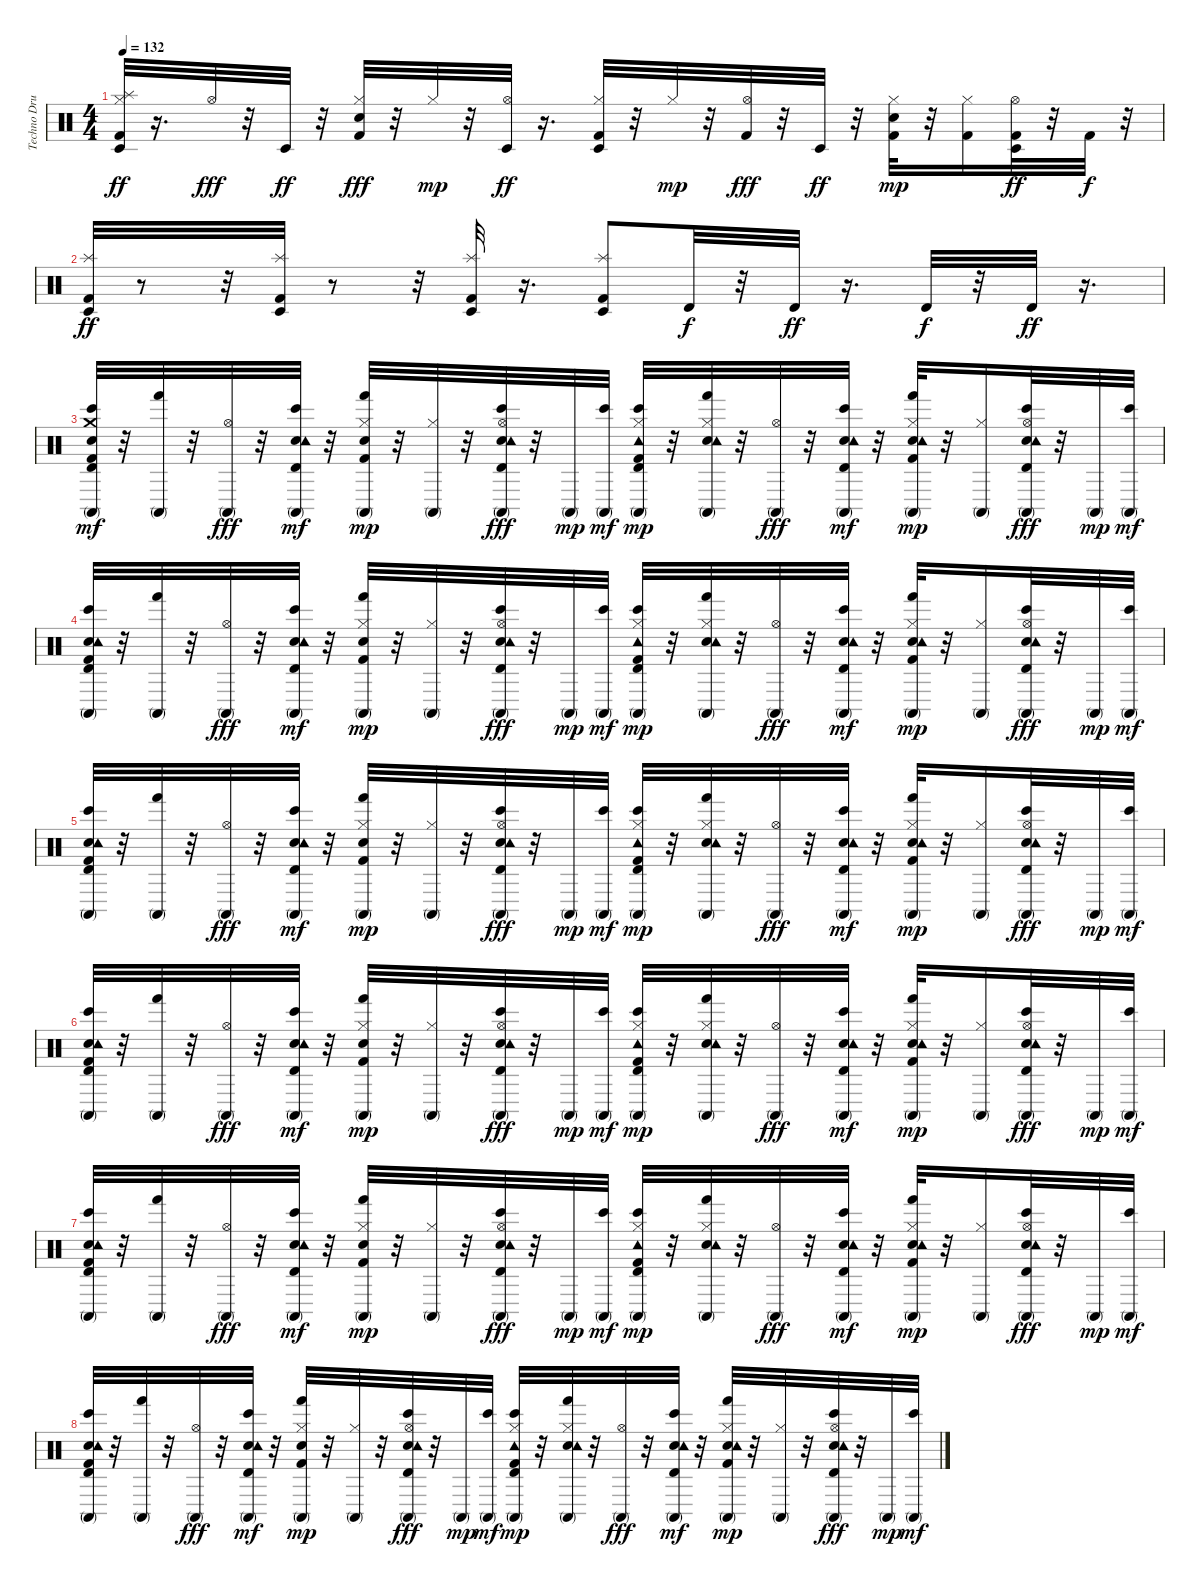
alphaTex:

\track ("Techno Drums" "Techno Dru") {instrument percussion}
\staff {score}
\articulation defaults
\ts (4 4)
\tempo 132
\clef neutral
\ks c
("Kick (hit) 2" "Hi-Hat (closed)" "Splash (hit)" "Timbale low (hit)").32{dy ff} r.16{d} "Hi-Hat (open)".32{dy fff} r.32 "Timbale low (hit)".32{dy ff} r.32 ("Hand Clap (hit)" "Hi-Hat (closed)" "Kick (hit) 2").32{dy fff} r.32 "Hi-Hat (closed)".32{dy mp} r.32 ("Hi-Hat (open)" "Timbale low (hit)").32{dy ff} r.16{d} ("Hi-Hat (closed)" "Kick (hit) 2" "Timbale low (hit)").32 r.32 "Hi-Hat (closed)".32{dy mp} r.32 ("Hi-Hat (open)" "Kick (hit) 2").32{dy fff} r.32 "Timbale low (hit)".32{dy ff} r.32 ("Hi-Hat (closed)" "Kick (hit) 2" "Hand Clap (hit)").32{dy mp} r.32 ("Hi-Hat (closed)" "Kick (hit) 2").16 ("Hi-Hat (open)" "Kick (hit) 2" "Timbale low (hit)").32{dy ff} r.32 "Kick (hit) 2".32{dy f} r.32 |
("Kick (hit) 2" "Timbale low (hit)" "Splash (hit)").32{dy ff} r.8 r.32 ("Kick (hit) 2" "Timbale low (hit)" "Splash (hit)").32 r.8 r.32 ("Kick (hit) 2" "Timbale low (hit)" "Splash (hit)").32 r.16{d} ("Timbale low (hit)" "Splash (hit)" "Kick (hit) 2").8 "Timbale high (hit)".32{dy f} r.32 "Timbale high (hit)".32{dy ff} r.16{d} "Timbale high (hit)".32{dy f} r.32 "Timbale high (hit)".32{dy ff} r.16{d} |
("Kick (hit) 2" "Hand Clap (hit)" "Crash medium (hit)" "Conga high (mute)" "Bongo High (hit)" "Timbale high (hit)").32{dy mf} r.32 ("Conga high (mute)" "Hand (hit)").32 r.32 ("Conga high (mute)" "Hi-Hat (open)").32{dy fff} r.32 ("Hand Clap (hit)" "Tambourine (hit)" "Conga high (mute)" "Bongo High (hit)" "Timbale high (hit)").32{dy mf} r.32 ("Kick (hit) 2" "Hand Clap (hit)" "Conga high (mute)" "Hand (hit)" "Hi-Hat (closed)").32{dy mp} r.32 ("Conga high (mute)" "Hi-Hat (closed)").32 r.32 ("Hand Clap (hit)" "Tambourine (hit)" "Conga high (mute)" "Bongo High (hit)" "Timbale high (hit)" "Hi-Hat (open)").32{dy fff} r.32 "Conga high (mute)".32{dy mp} ("Conga high (mute)" "Bongo High (hit)").32{dy mf} ("Kick (hit) 2" "Tambourine (hit)" "Conga high (mute)" "Bongo High (hit)" "Timbale high (hit)" "Hi-Hat (closed)").32{dy mp} r.32 ("Hand Clap (hit)" "Tambourine (hit)" "Conga high (mute)" "Hand (hit)" "Hi-Hat (closed)").32 r.32 ("Conga high (mute)" "Hi-Hat (open)").32{dy fff} r.32 ("Hand Clap (hit)" "Tambourine (hit)" "Conga high (mute)" "Bongo High (hit)" "Timbale high (hit)").32{dy mf} r.32 ("Kick (hit) 2" "Hand Clap (hit)" "Tambourine (hit)" "Conga high (mute)" "Hand (hit)" "Hi-Hat (closed)").32{dy mp} r.32 ("Conga high (mute)" "Hi-Hat (closed)").16 ("Hand Clap (hit)" "Tambourine (hit)" "Conga high (mute)" "Bongo High (hit)" "Timbale high (hit)" "Hi-Hat (open)").32{dy fff} r.32 "Conga high (mute)".32{dy mp} ("Conga high (mute)" "Bongo High (hit)").32{dy mf} |
("Kick (hit) 2" "Hand Clap (hit)" "Tambourine (hit)" "Conga high (mute)" "Bongo High (hit)" "Timbale high (hit)").32 r.32 ("Conga high (mute)" "Hand (hit)").32 r.32 ("Conga high (mute)" "Hi-Hat (open)").32{dy fff} r.32 ("Hand Clap (hit)" "Tambourine (hit)" "Conga high (mute)" "Bongo High (hit)" "Timbale high (hit)").32{dy mf} r.32 ("Kick (hit) 2" "Hand Clap (hit)" "Conga high (mute)" "Hand (hit)" "Hi-Hat (closed)").32{dy mp} r.32 ("Conga high (mute)" "Hi-Hat (closed)").32 r.32 ("Hand Clap (hit)" "Tambourine (hit)" "Conga high (mute)" "Bongo High (hit)" "Timbale high (hit)" "Hi-Hat (open)").32{dy fff} r.32 "Conga high (mute)".32{dy mp} ("Conga high (mute)" "Bongo High (hit)").32{dy mf} ("Kick (hit) 2" "Tambourine (hit)" "Conga high (mute)" "Bongo High (hit)" "Timbale high (hit)" "Hi-Hat (closed)").32{dy mp} r.32 ("Hand Clap (hit)" "Tambourine (hit)" "Conga high (mute)" "Hand (hit)" "Hi-Hat (closed)").32 r.32 ("Conga high (mute)" "Hi-Hat (open)").32{dy fff} r.32 ("Hand Clap (hit)" "Tambourine (hit)" "Conga high (mute)" "Bongo High (hit)" "Timbale high (hit)").32{dy mf} r.32 ("Kick (hit) 2" "Hand Clap (hit)" "Tambourine (hit)" "Conga high (mute)" "Hand (hit)" "Hi-Hat (closed)").32{dy mp} r.32 ("Conga high (mute)" "Hi-Hat (closed)").16 ("Hand Clap (hit)" "Tambourine (hit)" "Conga high (mute)" "Bongo High (hit)" "Timbale high (hit)" "Hi-Hat (open)").32{dy fff} r.32 "Conga high (mute)".32{dy mp} ("Conga high (mute)" "Bongo High (hit)").32{dy mf} |
("Kick (hit) 2" "Hand Clap (hit)" "Tambourine (hit)" "Conga high (mute)" "Bongo High (hit)" "Timbale high (hit)").32 r.32 ("Conga high (mute)" "Hand (hit)").32 r.32 ("Conga high (mute)" "Hi-Hat (open)").32{dy fff} r.32 ("Hand Clap (hit)" "Tambourine (hit)" "Conga high (mute)" "Bongo High (hit)" "Timbale high (hit)").32{dy mf} r.32 ("Kick (hit) 2" "Hand Clap (hit)" "Conga high (mute)" "Hand (hit)" "Hi-Hat (closed)").32{dy mp} r.32 ("Conga high (mute)" "Hi-Hat (closed)").32 r.32 ("Hand Clap (hit)" "Tambourine (hit)" "Conga high (mute)" "Bongo High (hit)" "Timbale high (hit)" "Hi-Hat (open)").32{dy fff} r.32 "Conga high (mute)".32{dy mp} ("Conga high (mute)" "Bongo High (hit)").32{dy mf} ("Kick (hit) 2" "Tambourine (hit)" "Conga high (mute)" "Bongo High (hit)" "Timbale high (hit)" "Hi-Hat (closed)").32{dy mp} r.32 ("Hand Clap (hit)" "Tambourine (hit)" "Conga high (mute)" "Hand (hit)" "Hi-Hat (closed)").32 r.32 ("Conga high (mute)" "Hi-Hat (open)").32{dy fff} r.32 ("Hand Clap (hit)" "Tambourine (hit)" "Conga high (mute)" "Bongo High (hit)" "Timbale high (hit)").32{dy mf} r.32 ("Kick (hit) 2" "Hand Clap (hit)" "Tambourine (hit)" "Conga high (mute)" "Hand (hit)" "Hi-Hat (closed)").32{dy mp} r.32 ("Conga high (mute)" "Hi-Hat (closed)").16 ("Hand Clap (hit)" "Tambourine (hit)" "Conga high (mute)" "Bongo High (hit)" "Timbale high (hit)" "Hi-Hat (open)").32{dy fff} r.32 "Conga high (mute)".32{dy mp} ("Conga high (mute)" "Bongo High (hit)").32{dy mf} |
("Kick (hit) 2" "Hand Clap (hit)" "Tambourine (hit)" "Conga high (mute)" "Bongo High (hit)" "Timbale high (hit)").32 r.32 ("Conga high (mute)" "Hand (hit)").32 r.32 ("Conga high (mute)" "Hi-Hat (open)").32{dy fff} r.32 ("Hand Clap (hit)" "Tambourine (hit)" "Conga high (mute)" "Bongo High (hit)" "Timbale high (hit)").32{dy mf} r.32 ("Kick (hit) 2" "Hand Clap (hit)" "Conga high (mute)" "Hand (hit)" "Hi-Hat (closed)").32{dy mp} r.32 ("Conga high (mute)" "Hi-Hat (closed)").32 r.32 ("Hand Clap (hit)" "Tambourine (hit)" "Conga high (mute)" "Bongo High (hit)" "Timbale high (hit)" "Hi-Hat (open)").32{dy fff} r.32 "Conga high (mute)".32{dy mp} ("Conga high (mute)" "Bongo High (hit)").32{dy mf} ("Kick (hit) 2" "Tambourine (hit)" "Conga high (mute)" "Bongo High (hit)" "Timbale high (hit)" "Hi-Hat (closed)").32{dy mp} r.32 ("Hand Clap (hit)" "Tambourine (hit)" "Conga high (mute)" "Hand (hit)" "Hi-Hat (closed)").32 r.32 ("Conga high (mute)" "Hi-Hat (open)").32{dy fff} r.32 ("Hand Clap (hit)" "Tambourine (hit)" "Conga high (mute)" "Bongo High (hit)" "Timbale high (hit)").32{dy mf} r.32 ("Kick (hit) 2" "Hand Clap (hit)" "Tambourine (hit)" "Conga high (mute)" "Hand (hit)" "Hi-Hat (closed)").32{dy mp} r.32 ("Conga high (mute)" "Hi-Hat (closed)").16 ("Hand Clap (hit)" "Tambourine (hit)" "Conga high (mute)" "Bongo High (hit)" "Timbale high (hit)" "Hi-Hat (open)").32{dy fff} r.32 "Conga high (mute)".32{dy mp} ("Conga high (mute)" "Bongo High (hit)").32{dy mf} |
("Kick (hit) 2" "Hand Clap (hit)" "Tambourine (hit)" "Conga high (mute)" "Bongo High (hit)" "Timbale high (hit)").32 r.32 ("Conga high (mute)" "Hand (hit)").32 r.32 ("Conga high (mute)" "Hi-Hat (open)").32{dy fff} r.32 ("Hand Clap (hit)" "Tambourine (hit)" "Conga high (mute)" "Bongo High (hit)" "Timbale high (hit)").32{dy mf} r.32 ("Kick (hit) 2" "Hand Clap (hit)" "Conga high (mute)" "Hand (hit)" "Hi-Hat (closed)").32{dy mp} r.32 ("Conga high (mute)" "Hi-Hat (closed)").32 r.32 ("Hand Clap (hit)" "Tambourine (hit)" "Conga high (mute)" "Bongo High (hit)" "Timbale high (hit)" "Hi-Hat (open)").32{dy fff} r.32 "Conga high (mute)".32{dy mp} ("Conga high (mute)" "Bongo High (hit)").32{dy mf} ("Kick (hit) 2" "Tambourine (hit)" "Conga high (mute)" "Bongo High (hit)" "Timbale high (hit)" "Hi-Hat (closed)").32{dy mp} r.32 ("Hand Clap (hit)" "Tambourine (hit)" "Conga high (mute)" "Hand (hit)" "Hi-Hat (closed)").32 r.32 ("Conga high (mute)" "Hi-Hat (open)").32{dy fff} r.32 ("Hand Clap (hit)" "Tambourine (hit)" "Conga high (mute)" "Bongo High (hit)" "Timbale high (hit)").32{dy mf} r.32 ("Kick (hit) 2" "Hand Clap (hit)" "Tambourine (hit)" "Conga high (mute)" "Hand (hit)" "Hi-Hat (closed)").32{dy mp} r.32 ("Conga high (mute)" "Hi-Hat (closed)").16 ("Hand Clap (hit)" "Tambourine (hit)" "Conga high (mute)" "Bongo High (hit)" "Timbale high (hit)" "Hi-Hat (open)").32{dy fff} r.32 "Conga high (mute)".32{dy mp} ("Conga high (mute)" "Bongo High (hit)").32{dy mf} |
("Kick (hit) 2" "Hand Clap (hit)" "Tambourine (hit)" "Conga high (mute)" "Bongo High (hit)" "Timbale high (hit)").32 r.32 ("Conga high (mute)" "Hand (hit)").32 r.32 ("Conga high (mute)" "Hi-Hat (open)").32{dy fff} r.32 ("Hand Clap (hit)" "Tambourine (hit)" "Conga high (mute)" "Bongo High (hit)" "Timbale high (hit)").32{dy mf} r.32 ("Kick (hit) 2" "Hand Clap (hit)" "Conga high (mute)" "Hand (hit)" "Hi-Hat (closed)").32{dy mp} r.32 ("Conga high (mute)" "Hi-Hat (closed)").32 r.32 ("Hand Clap (hit)" "Tambourine (hit)" "Conga high (mute)" "Bongo High (hit)" "Timbale high (hit)" "Hi-Hat (open)").32{dy fff} r.32 "Conga high (mute)".32{dy mp} ("Conga high (mute)" "Bongo High (hit)").32{dy mf} ("Kick (hit) 2" "Tambourine (hit)" "Conga high (mute)" "Bongo High (hit)" "Timbale high (hit)" "Hi-Hat (closed)").32{dy mp} r.32 ("Hand Clap (hit)" "Tambourine (hit)" "Conga high (mute)" "Hand (hit)" "Hi-Hat (closed)").32 r.32 ("Conga high (mute)" "Hi-Hat (open)").32{dy fff} r.32 ("Hand Clap (hit)" "Tambourine (hit)" "Conga high (mute)" "Bongo High (hit)" "Timbale high (hit)").32{dy mf} r.32 ("Kick (hit) 2" "Hand Clap (hit)" "Tambourine (hit)" "Conga high (mute)" "Hand (hit)" "Hi-Hat (closed)").32{dy mp} r.32 ("Conga high (mute)" "Hi-Hat (closed)").32 r.32 ("Hand Clap (hit)" "Tambourine (hit)" "Conga high (mute)" "Bongo High (hit)" "Timbale high (hit)" "Hi-Hat (open)").32{dy fff} r.32 "Conga high (mute)".32{dy mp} ("Conga high (mute)" "Bongo High (hit)").32{dy mf}
